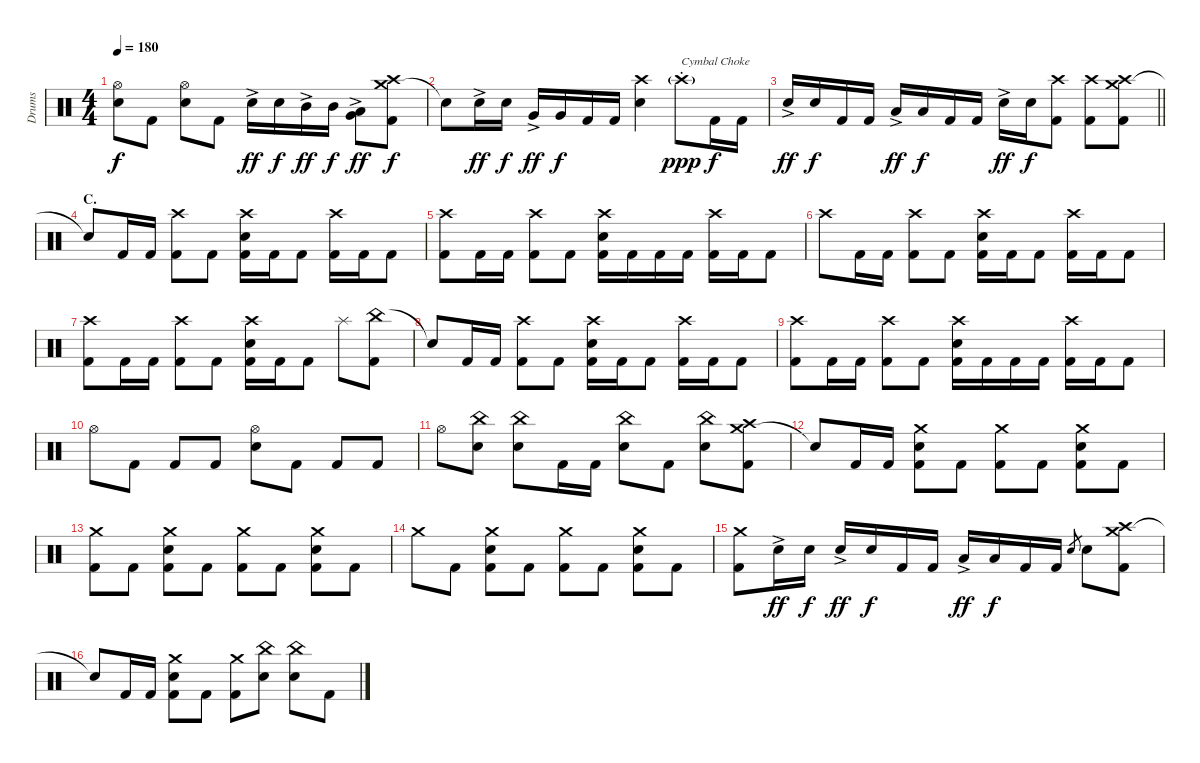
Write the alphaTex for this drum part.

\track ("Drums" "Drums") {instrument percussion}
\staff {score}
\articulation defaults
\ts (4 4)
\tempo 180
\clef neutral
\ks c
("Hi-Hat (open)" "Electric Snare (hit)").8{dy f} "Kick (hit) 2".8 ("Hi-Hat (open)" "Electric Snare (hit)").8 "Kick (hit) 2".8 "Electric Snare (hit)"{ac}.16{dy ff} "Electric Snare (hit)".16{dy f} "Mid Tom (hit)"{ac}.16{dy ff} "Mid Tom (hit)".16{dy f} ("Very Low Tom (hit)" "Low Floor Tom (hit)"{ac}).8{dy ff} ("Crash medium (hit)" "Crash high (hit)" "Kick (hit) 2").8{dy f} |
"Snare (hit)"{t}.8 "Electric Snare (hit)"{ac}.16{dy ff} "Electric Snare (hit)".16{dy f} "Very Low Tom (hit)"{ac}.16{dy ff} "Very Low Tom (hit)".16{dy f} "Kick (hit) 2".16 "Kick (hit) 2".16 ("Crash high (hit)" "Electric Snare (hit)").4 "Crash high (hit)"{g st}.8{txt "Cymbal Choke" dy ppp} "Kick (hit) 2".16{dy f} "Kick (hit) 2".16 |
\barLineRight lightlight "Electric Snare (hit)"{ac}.16{dy ff} "Electric Snare (hit)".16{dy f} "Kick (hit) 2".16 "Kick (hit) 2".16 "Low Tom (hit)"{ac}.16{dy ff} "Low Tom (hit)".16{dy f} "Kick (hit) 2".16 "Kick (hit) 2".16 "Electric Snare (hit)"{ac}.16{dy ff} "Electric Snare (hit)".16{dy f}
("Crash high (hit)" "Kick (hit) 2").8 ("Crash high (hit)" "Kick (hit) 2").8 ("Crash medium (hit)" "Crash high (hit)" "Kick (hit) 2").8 |
\section ("" "C.")
"Snare (hit)"{t}.8 "Kick (hit) 2".16 "Kick (hit) 2".16 ("Crash high (hit)" "Kick (hit) 2").8 "Kick (hit) 2".8 ("Crash high (hit)" "Electric Snare (hit)" "Kick (hit) 2").16 "Kick (hit) 2".16 "Kick (hit) 2".8 ("Crash high (hit)" "Kick (hit) 2").16 "Kick (hit) 2".16 "Kick (hit) 2".8 |
("Crash high (hit)" "Kick (hit) 2").8 "Kick (hit) 2".16 "Kick (hit) 2".16 ("Crash high (hit)" "Kick (hit) 2").8 "Kick (hit) 2".8 ("Crash high (hit)" "Electric Snare (hit)" "Kick (hit) 2").16 "Kick (hit) 2".16 "Kick (hit) 2".16 "Kick (hit) 2".16 ("Crash high (hit)" "Kick (hit) 2").16 "Kick (hit) 2".16 "Kick (hit) 2".8 |
"Crash high (hit)".8 "Kick (hit) 2".16 "Kick (hit) 2".16 ("Crash high (hit)" "Kick (hit) 2").8 "Kick (hit) 2".8 ("Crash high (hit)" "Electric Snare (hit)" "Kick (hit) 2").16 "Kick (hit) 2".16 "Kick (hit) 2".8 ("Crash high (hit)" "Kick (hit) 2").16 "Kick (hit) 2".16 "Kick (hit) 2".8 |
("Crash high (hit)" "Kick (hit) 2").8 "Kick (hit) 2".16 "Kick (hit) 2".16 ("Crash high (hit)" "Kick (hit) 2").8 "Kick (hit) 2".8 ("Crash high (hit)" "Electric Snare (hit)" "Kick (hit) 2").16 "Kick (hit) 2".16 "Kick (hit) 2".8 "Splash (hit)".8 ("China (hit)" "Kick (hit) 2").8 |
"Snare (hit)"{t}.8 "Kick (hit) 2".16 "Kick (hit) 2".16 ("Crash high (hit)" "Kick (hit) 2").8 "Kick (hit) 2".8 ("Crash high (hit)" "Electric Snare (hit)" "Kick (hit) 2").16 "Kick (hit) 2".16 "Kick (hit) 2".8 ("Crash high (hit)" "Kick (hit) 2").16 "Kick (hit) 2".16 "Kick (hit) 2".8 |
("Crash high (hit)" "Kick (hit) 2").8 "Kick (hit) 2".16 "Kick (hit) 2".16 ("Crash high (hit)" "Kick (hit) 2").8 "Kick (hit) 2".8 ("Crash high (hit)" "Electric Snare (hit)" "Kick (hit) 2").16 "Kick (hit) 2".16 "Kick (hit) 2".16 "Kick (hit) 2".16 ("Crash high (hit)" "Kick (hit) 2").16 "Kick (hit) 2".16 "Kick (hit) 2".8 |
"Hi-Hat (open)".8 "Kick (hit) 2".8 "Kick (hit) 2".8 "Kick (hit) 2".8 ("Hi-Hat (open)" "Electric Snare (hit)").8 "Kick (hit) 2".8 "Kick (hit) 2".8 "Kick (hit) 2".8 |
"Hi-Hat (open)".8 ("China (hit)" "Electric Snare (hit)").8 ("China (hit)" "Electric Snare (hit)").8 "Kick (hit) 2".16 "Kick (hit) 2".16 ("China (hit)" "Electric Snare (hit)").8 "Kick (hit) 2".8 ("China (hit)" "Electric Snare (hit)").8 ("Crash medium (hit)" "Crash high (hit)" "Kick (hit) 2").8 |
"Snare (hit)"{t}.8 "Kick (hit) 2".16 "Kick (hit) 2".16 ("Crash medium (hit)" "Electric Snare (hit)" "Kick (hit) 2").8 "Kick (hit) 2".8 ("Crash medium (hit)" "Kick (hit) 2").8 "Kick (hit) 2".8 ("Crash medium (hit)" "Electric Snare (hit)" "Kick (hit) 2").8 "Kick (hit) 2".8 |
("Crash medium (hit)" "Kick (hit) 2").8 "Kick (hit) 2".8 ("Crash medium (hit)" "Electric Snare (hit)" "Kick (hit) 2").8 "Kick (hit) 2".8 ("Crash medium (hit)" "Kick (hit) 2").8 "Kick (hit) 2".8 ("Crash medium (hit)" "Electric Snare (hit)" "Kick (hit) 2").8 "Kick (hit) 2".8 |
"Crash medium (hit)".8 "Kick (hit) 2".8 ("Crash medium (hit)" "Electric Snare (hit)" "Kick (hit) 2").8 "Kick (hit) 2".8 ("Crash medium (hit)" "Kick (hit) 2").8 "Kick (hit) 2".8 ("Crash medium (hit)" "Electric Snare (hit)" "Kick (hit) 2").8 "Kick (hit) 2".8 |
("Crash medium (hit)" "Kick (hit) 2").8 "Electric Snare (hit)"{ac}.16{dy ff} "Electric Snare (hit)".16{dy f} "Electric Snare (hit)"{ac}.16{dy ff} "Electric Snare (hit)".16{dy f} "Kick (hit) 2".16 "Kick (hit) 2".16 "Low Tom (hit)"{ac}.16{dy ff} "Low Tom (hit)".16{dy f} "Kick (hit) 2".16 "Kick (hit) 2".16 "Electric Snare (hit)".8{gr} "Electric Snare (hit)".8 ("Crash medium (hit)" "Crash high (hit)" "Kick (hit) 2").8 |
"Snare (hit)"{t}.8 "Kick (hit) 2".16 "Kick (hit) 2".16 ("Crash medium (hit)" "Electric Snare (hit)" "Kick (hit) 2").8 "Kick (hit) 2".8 ("Crash medium (hit)" "Kick (hit) 2").8 ("China (hit)" "Electric Snare (hit)").8 ("China (hit)" "Electric Snare (hit)").8 "Kick (hit) 2".8
